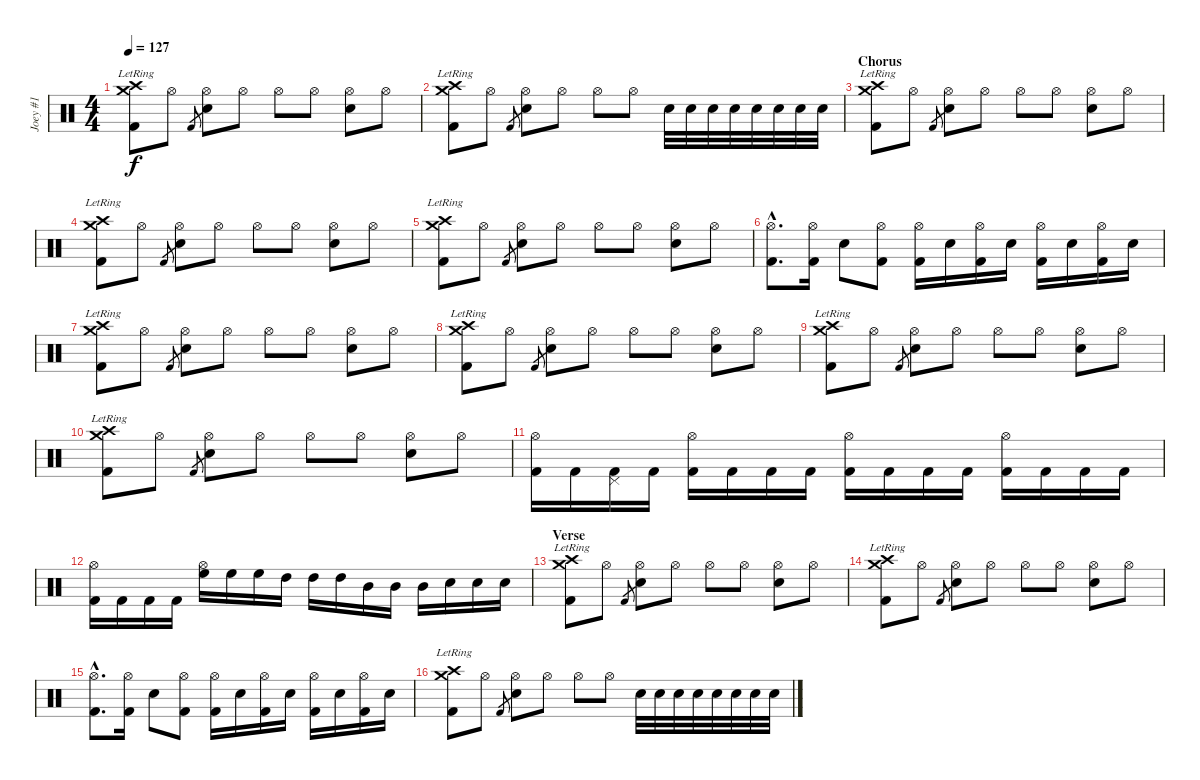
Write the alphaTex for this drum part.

\track ("Joey #1" "Joey #1") {instrument percussion}
\staff {score}
\articulation defaults
\ts (4 4)
\tempo 127
\clef neutral
\ks c
("Crash medium (hit)"{lr} "Crash high (hit)"{lr} "Kick (hit) 2").8{dy f} "Hi-Hat (open)".8 "Kick (hit) 2"{sl}.8{gr} ("Hi-Hat (open)" "Electric Snare (hit)").8 "Hi-Hat (open)".8 "Hi-Hat (open)".8 "Hi-Hat (open)".8 ("Hi-Hat (open)" "Electric Snare (hit)").8 "Hi-Hat (open)".8 |
("Crash medium (hit)"{lr} "Crash high (hit)"{lr} "Kick (hit) 2").8 "Hi-Hat (open)".8 "Kick (hit) 2"{sl}.8{gr} ("Hi-Hat (open)" "Electric Snare (hit)").8 "Hi-Hat (open)".8 "Hi-Hat (open)".8 "Hi-Hat (open)".8 "Electric Snare (hit)".32 "Electric Snare (hit)".32 "Electric Snare (hit)".32 "Electric Snare (hit)".32 "Electric Snare (hit)".32 "Electric Snare (hit)".32 "Electric Snare (hit)".32 "Electric Snare (hit)".32 |
\section ("" "Chorus")
("Crash medium (hit)"{lr} "Crash high (hit)"{lr} "Kick (hit) 2").8 "Hi-Hat (open)".8 "Kick (hit) 2"{sl}.8{gr} ("Hi-Hat (open)" "Electric Snare (hit)").8 "Hi-Hat (open)".8 "Hi-Hat (open)".8 "Hi-Hat (open)".8 ("Hi-Hat (open)" "Electric Snare (hit)").8 "Hi-Hat (open)".8 |
("Crash medium (hit)"{lr} "Crash high (hit)"{lr} "Kick (hit) 2").8 "Hi-Hat (open)".8 "Kick (hit) 2"{sl}.8{gr} ("Hi-Hat (open)" "Electric Snare (hit)").8 "Hi-Hat (open)".8 "Hi-Hat (open)".8 "Hi-Hat (open)".8 ("Hi-Hat (open)" "Electric Snare (hit)").8 "Hi-Hat (open)".8 |
("Crash medium (hit)"{lr} "Crash high (hit)"{lr} "Kick (hit) 2").8 "Hi-Hat (open)".8 "Kick (hit) 2"{sl}.8{gr} ("Hi-Hat (open)" "Electric Snare (hit)").8 "Hi-Hat (open)".8 "Hi-Hat (open)".8 "Hi-Hat (open)".8 ("Hi-Hat (open)" "Electric Snare (hit)").8 "Hi-Hat (open)".8 |
("Hi-Hat (open)"{hac} "Kick (hit) 2"{hac}).8{d} ("Hi-Hat (open)" "Kick (hit) 2").16 "Electric Snare (hit)".8 ("Hi-Hat (open)" "Kick (hit) 2").8 ("Kick (hit) 2" "Hi-Hat (open)").16 "Electric Snare (hit)".16 ("Kick (hit) 2" "Hi-Hat (open)").16 "Electric Snare (hit)".16 ("Kick (hit) 2" "Hi-Hat (open)").16 "Electric Snare (hit)".16 ("Kick (hit) 2" "Hi-Hat (open)").16 "Electric Snare (hit)".16 |
("Crash medium (hit)"{lr} "Crash high (hit)"{lr} "Kick (hit) 2").8 "Hi-Hat (open)".8 "Kick (hit) 2"{sl}.8{gr} ("Hi-Hat (open)" "Electric Snare (hit)").8 "Hi-Hat (open)".8 "Hi-Hat (open)".8 "Hi-Hat (open)".8 ("Hi-Hat (open)" "Electric Snare (hit)").8 "Hi-Hat (open)".8 |
("Crash medium (hit)"{lr} "Crash high (hit)"{lr} "Kick (hit) 2").8 "Hi-Hat (open)".8 "Kick (hit) 2"{sl}.8{gr} ("Hi-Hat (open)" "Electric Snare (hit)").8 "Hi-Hat (open)".8 "Hi-Hat (open)".8 "Hi-Hat (open)".8 ("Hi-Hat (open)" "Electric Snare (hit)").8 "Hi-Hat (open)".8 |
("Crash medium (hit)"{lr} "Crash high (hit)"{lr} "Kick (hit) 2").8 "Hi-Hat (open)".8 "Kick (hit) 2"{sl}.8{gr} ("Hi-Hat (open)" "Electric Snare (hit)").8 "Hi-Hat (open)".8 "Hi-Hat (open)".8 "Hi-Hat (open)".8 ("Hi-Hat (open)" "Electric Snare (hit)").8 "Hi-Hat (open)".8 |
("Crash medium (hit)"{lr} "Crash high (hit)"{lr} "Kick (hit) 2").8 "Hi-Hat (open)".8 "Kick (hit) 2"{sl}.8{gr} ("Hi-Hat (open)" "Electric Snare (hit)").8 "Hi-Hat (open)".8 "Hi-Hat (open)".8 "Hi-Hat (open)".8 ("Hi-Hat (open)" "Electric Snare (hit)").8 "Hi-Hat (open)".8 |
("Hi-Hat (open)" "Kick (hit) 2").16 "Kick (hit) 2".16 ("Pedal Hi-Hat (hit)" "Kick (hit) 2").16 "Kick (hit) 2".16 ("Hi-Hat (open)" "Kick (hit) 2").16 "Kick (hit) 2".16 "Kick (hit) 2".16 "Kick (hit) 2".16 ("Hi-Hat (open)" "Kick (hit) 2").16 "Kick (hit) 2".16 "Kick (hit) 2".16 "Kick (hit) 2".16 ("Hi-Hat (open)" "Kick (hit) 2").16 "Kick (hit) 2".16 "Kick (hit) 2".16 "Kick (hit) 2".16 |
("Hi-Hat (open)" "Kick (hit) 2").16 "Kick (hit) 2".16 "Kick (hit) 2".16 "Kick (hit) 2".16 ("Hi-Hat (open)" "High Floor Tom (hit)").16 "High Floor Tom (hit)".16 "High Floor Tom (hit)".16 "High Tom (hit)".16 "High Tom (hit)".16 "High Tom (hit)".16 "Mid Tom (hit)".16 "Mid Tom (hit)".16 "Mid Tom (hit)".16 "Electric Snare (hit)".16 "Electric Snare (hit)".16 "Electric Snare (hit)".16 |
\section ("" "Verse")
("Crash medium (hit)"{lr} "Crash high (hit)"{lr} "Kick (hit) 2").8 "Hi-Hat (open)".8 "Kick (hit) 2"{sl}.8{gr} ("Hi-Hat (open)" "Electric Snare (hit)").8 "Hi-Hat (open)".8 "Hi-Hat (open)".8 "Hi-Hat (open)".8 ("Hi-Hat (open)" "Electric Snare (hit)").8 "Hi-Hat (open)".8 |
("Crash medium (hit)"{lr} "Crash high (hit)"{lr} "Kick (hit) 2").8 "Hi-Hat (open)".8 "Kick (hit) 2"{sl}.8{gr} ("Hi-Hat (open)" "Electric Snare (hit)").8 "Hi-Hat (open)".8 "Hi-Hat (open)".8 "Hi-Hat (open)".8 ("Hi-Hat (open)" "Electric Snare (hit)").8 "Hi-Hat (open)".8 |
("Hi-Hat (open)"{hac} "Kick (hit) 2"{hac}).8{d} ("Hi-Hat (open)" "Kick (hit) 2").16 "Electric Snare (hit)".8 ("Hi-Hat (open)" "Kick (hit) 2").8 ("Kick (hit) 2" "Hi-Hat (open)").16 "Electric Snare (hit)".16 ("Kick (hit) 2" "Hi-Hat (open)").16 "Electric Snare (hit)".16 ("Kick (hit) 2" "Hi-Hat (open)").16 "Electric Snare (hit)".16 ("Kick (hit) 2" "Hi-Hat (open)").16 "Electric Snare (hit)".16 |
("Crash medium (hit)"{lr} "Crash high (hit)"{lr} "Kick (hit) 2").8 "Hi-Hat (open)".8 "Kick (hit) 2"{sl}.8{gr} ("Hi-Hat (open)" "Electric Snare (hit)").8 "Hi-Hat (open)".8 "Hi-Hat (open)".8 "Hi-Hat (open)".8 "Electric Snare (hit)".32 "Electric Snare (hit)".32 "Electric Snare (hit)".32 "Electric Snare (hit)".32 "Electric Snare (hit)".32 "Electric Snare (hit)".32 "Electric Snare (hit)".32 "Electric Snare (hit)".32
